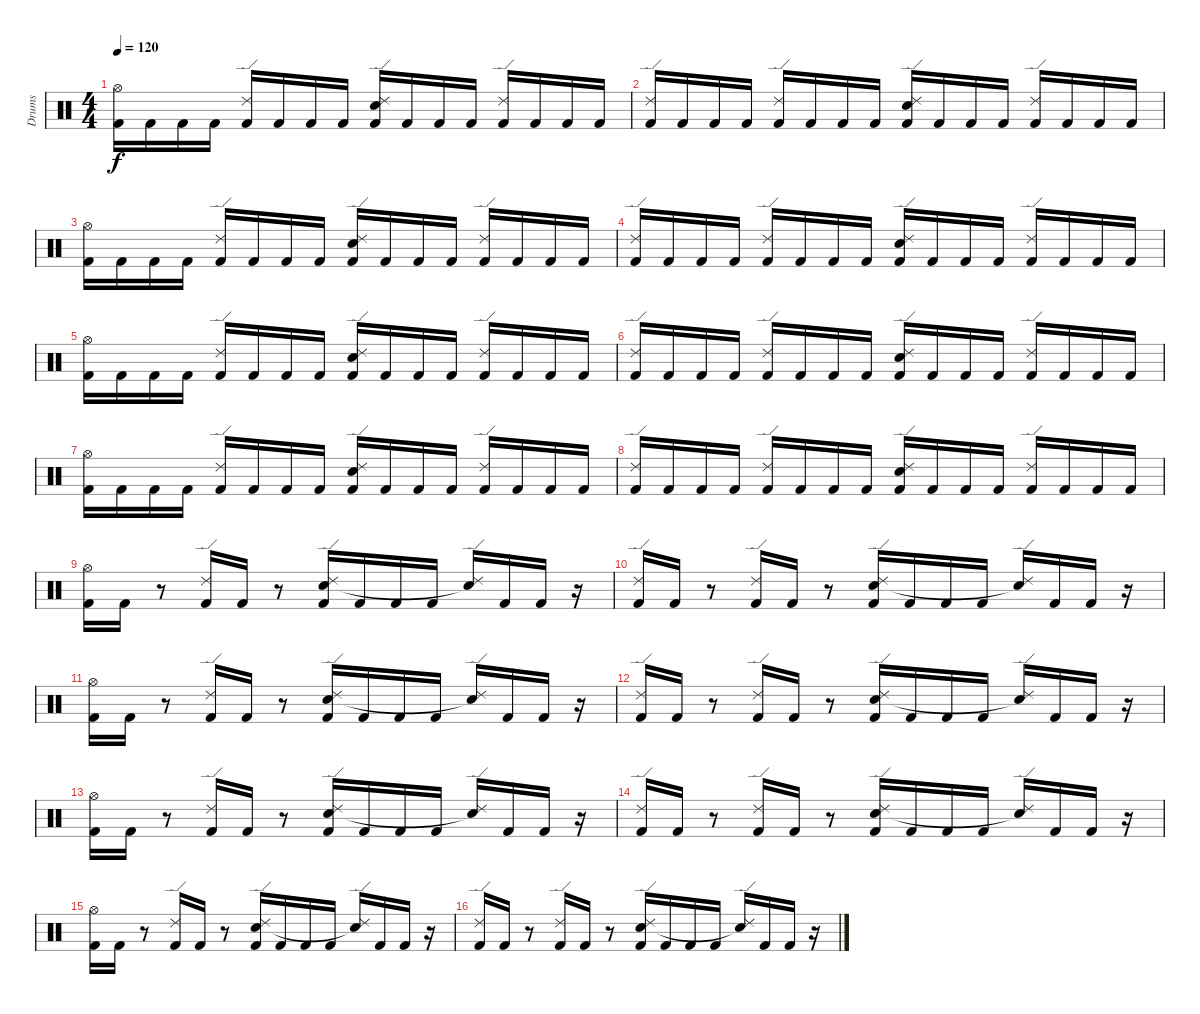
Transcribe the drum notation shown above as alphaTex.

\track ("Drums" "Drums") {instrument percussion}
\staff {score}
\articulation defaults
\ts (4 4)
\tempo 120
\clef neutral
\ks c
("Hi-Hat (open)" "Kick (hit) 2").16{dy f} "Kick (hit) 2".16 "Kick (hit) 2".16 "Kick (hit) 2".16 ("Ride (edge) 2" "Kick (hit) 2").16 "Kick (hit) 2".16 "Kick (hit) 2".16 "Kick (hit) 2".16 ("Ride (edge) 2" "Snare (hit) 2" "Kick (hit) 2").16 "Kick (hit) 2".16 "Kick (hit) 2".16 "Kick (hit) 2".16 ("Ride (edge) 2" "Kick (hit) 2").16 "Kick (hit) 2".16 "Kick (hit) 2".16 "Kick (hit) 2".16 |
("Ride (edge) 2" "Kick (hit) 2").16 "Kick (hit) 2".16 "Kick (hit) 2".16 "Kick (hit) 2".16 ("Ride (edge) 2" "Kick (hit) 2").16 "Kick (hit) 2".16 "Kick (hit) 2".16 "Kick (hit) 2".16 ("Ride (edge) 2" "Snare (hit) 2" "Kick (hit) 2").16 "Kick (hit) 2".16 "Kick (hit) 2".16 "Kick (hit) 2".16 ("Ride (edge) 2" "Kick (hit) 2").16 "Kick (hit) 2".16 "Kick (hit) 2".16 "Kick (hit) 2".16 |
("Hi-Hat (open)" "Kick (hit) 2").16 "Kick (hit) 2".16 "Kick (hit) 2".16 "Kick (hit) 2".16 ("Ride (edge) 2" "Kick (hit) 2").16 "Kick (hit) 2".16 "Kick (hit) 2".16 "Kick (hit) 2".16 ("Ride (edge) 2" "Snare (hit) 2" "Kick (hit) 2").16 "Kick (hit) 2".16 "Kick (hit) 2".16 "Kick (hit) 2".16 ("Ride (edge) 2" "Kick (hit) 2").16 "Kick (hit) 2".16 "Kick (hit) 2".16 "Kick (hit) 2".16 |
("Ride (edge) 2" "Kick (hit) 2").16 "Kick (hit) 2".16 "Kick (hit) 2".16 "Kick (hit) 2".16 ("Ride (edge) 2" "Kick (hit) 2").16 "Kick (hit) 2".16 "Kick (hit) 2".16 "Kick (hit) 2".16 ("Ride (edge) 2" "Snare (hit) 2" "Kick (hit) 2").16 "Kick (hit) 2".16 "Kick (hit) 2".16 "Kick (hit) 2".16 ("Ride (edge) 2" "Kick (hit) 2").16 "Kick (hit) 2".16 "Kick (hit) 2".16 "Kick (hit) 2".16 |
("Hi-Hat (open)" "Kick (hit) 2").16 "Kick (hit) 2".16 "Kick (hit) 2".16 "Kick (hit) 2".16 ("Ride (edge) 2" "Kick (hit) 2").16 "Kick (hit) 2".16 "Kick (hit) 2".16 "Kick (hit) 2".16 ("Ride (edge) 2" "Snare (hit) 2" "Kick (hit) 2").16 "Kick (hit) 2".16 "Kick (hit) 2".16 "Kick (hit) 2".16 ("Ride (edge) 2" "Kick (hit) 2").16 "Kick (hit) 2".16 "Kick (hit) 2".16 "Kick (hit) 2".16 |
("Ride (edge) 2" "Kick (hit) 2").16 "Kick (hit) 2".16 "Kick (hit) 2".16 "Kick (hit) 2".16 ("Ride (edge) 2" "Kick (hit) 2").16 "Kick (hit) 2".16 "Kick (hit) 2".16 "Kick (hit) 2".16 ("Ride (edge) 2" "Snare (hit) 2" "Kick (hit) 2").16 "Kick (hit) 2".16 "Kick (hit) 2".16 "Kick (hit) 2".16 ("Ride (edge) 2" "Kick (hit) 2").16 "Kick (hit) 2".16 "Kick (hit) 2".16 "Kick (hit) 2".16 |
("Hi-Hat (open)" "Kick (hit) 2").16 "Kick (hit) 2".16 "Kick (hit) 2".16 "Kick (hit) 2".16 ("Ride (edge) 2" "Kick (hit) 2").16 "Kick (hit) 2".16 "Kick (hit) 2".16 "Kick (hit) 2".16 ("Ride (edge) 2" "Snare (hit) 2" "Kick (hit) 2").16 "Kick (hit) 2".16 "Kick (hit) 2".16 "Kick (hit) 2".16 ("Ride (edge) 2" "Kick (hit) 2").16 "Kick (hit) 2".16 "Kick (hit) 2".16 "Kick (hit) 2".16 |
("Ride (edge) 2" "Kick (hit) 2").16 "Kick (hit) 2".16 "Kick (hit) 2".16 "Kick (hit) 2".16 ("Ride (edge) 2" "Kick (hit) 2").16 "Kick (hit) 2".16 "Kick (hit) 2".16 "Kick (hit) 2".16 ("Ride (edge) 2" "Snare (hit) 2" "Kick (hit) 2").16 "Kick (hit) 2".16 "Kick (hit) 2".16 "Kick (hit) 2".16 ("Ride (edge) 2" "Kick (hit) 2").16 "Kick (hit) 2".16 "Kick (hit) 2".16 "Kick (hit) 2".16 |
("Hi-Hat (open)" "Kick (hit) 2").16 "Kick (hit) 2".16 r.8 ("Ride (edge) 2" "Kick (hit) 2").16 "Kick (hit) 2".16 r.8 ("Ride (edge) 2" "Snare (hit) 2" "Kick (hit) 2").16 "Kick (hit) 2".16 "Kick (hit) 2".16 "Kick (hit) 2".16 ("Ride (edge) 2" "Snare (hit)"{t}).16 "Kick (hit) 2".16 "Kick (hit) 2".16 r.16 |
("Ride (edge) 2" "Kick (hit) 2").16 "Kick (hit) 2".16 r.8 ("Ride (edge) 2" "Kick (hit) 2").16 "Kick (hit) 2".16 r.8 ("Ride (edge) 2" "Snare (hit) 2" "Kick (hit) 2").16 "Kick (hit) 2".16 "Kick (hit) 2".16 "Kick (hit) 2".16 ("Ride (edge) 2" "Snare (hit)"{t}).16 "Kick (hit) 2".16 "Kick (hit) 2".16 r.16 |
("Hi-Hat (open)" "Kick (hit) 2").16 "Kick (hit) 2".16 r.8 ("Ride (edge) 2" "Kick (hit) 2").16 "Kick (hit) 2".16 r.8 ("Ride (edge) 2" "Snare (hit) 2" "Kick (hit) 2").16 "Kick (hit) 2".16 "Kick (hit) 2".16 "Kick (hit) 2".16 ("Ride (edge) 2" "Snare (hit)"{t}).16 "Kick (hit) 2".16 "Kick (hit) 2".16 r.16 |
("Ride (edge) 2" "Kick (hit) 2").16 "Kick (hit) 2".16 r.8 ("Ride (edge) 2" "Kick (hit) 2").16 "Kick (hit) 2".16 r.8 ("Ride (edge) 2" "Snare (hit) 2" "Kick (hit) 2").16 "Kick (hit) 2".16 "Kick (hit) 2".16 "Kick (hit) 2".16 ("Ride (edge) 2" "Snare (hit)"{t}).16 "Kick (hit) 2".16 "Kick (hit) 2".16 r.16 |
("Hi-Hat (open)" "Kick (hit) 2").16 "Kick (hit) 2".16 r.8 ("Ride (edge) 2" "Kick (hit) 2").16 "Kick (hit) 2".16 r.8 ("Ride (edge) 2" "Snare (hit) 2" "Kick (hit) 2").16 "Kick (hit) 2".16 "Kick (hit) 2".16 "Kick (hit) 2".16 ("Ride (edge) 2" "Snare (hit)"{t}).16 "Kick (hit) 2".16 "Kick (hit) 2".16 r.16 |
("Ride (edge) 2" "Kick (hit) 2").16 "Kick (hit) 2".16 r.8 ("Ride (edge) 2" "Kick (hit) 2").16 "Kick (hit) 2".16 r.8 ("Ride (edge) 2" "Snare (hit) 2" "Kick (hit) 2").16 "Kick (hit) 2".16 "Kick (hit) 2".16 "Kick (hit) 2".16 ("Ride (edge) 2" "Snare (hit)"{t}).16 "Kick (hit) 2".16 "Kick (hit) 2".16 r.16 |
("Hi-Hat (open)" "Kick (hit) 2").16 "Kick (hit) 2".16 r.8 ("Ride (edge) 2" "Kick (hit) 2").16 "Kick (hit) 2".16 r.8 ("Ride (edge) 2" "Snare (hit) 2" "Kick (hit) 2").16 "Kick (hit) 2".16 "Kick (hit) 2".16 "Kick (hit) 2".16 ("Ride (edge) 2" "Snare (hit)"{t}).16 "Kick (hit) 2".16 "Kick (hit) 2".16 r.16 |
("Ride (edge) 2" "Kick (hit) 2").16 "Kick (hit) 2".16 r.8 ("Ride (edge) 2" "Kick (hit) 2").16 "Kick (hit) 2".16 r.8 ("Ride (edge) 2" "Snare (hit) 2" "Kick (hit) 2").16 "Kick (hit) 2".16 "Kick (hit) 2".16 "Kick (hit) 2".16 ("Ride (edge) 2" "Snare (hit)"{t}).16 "Kick (hit) 2".16 "Kick (hit) 2".16 r.16
